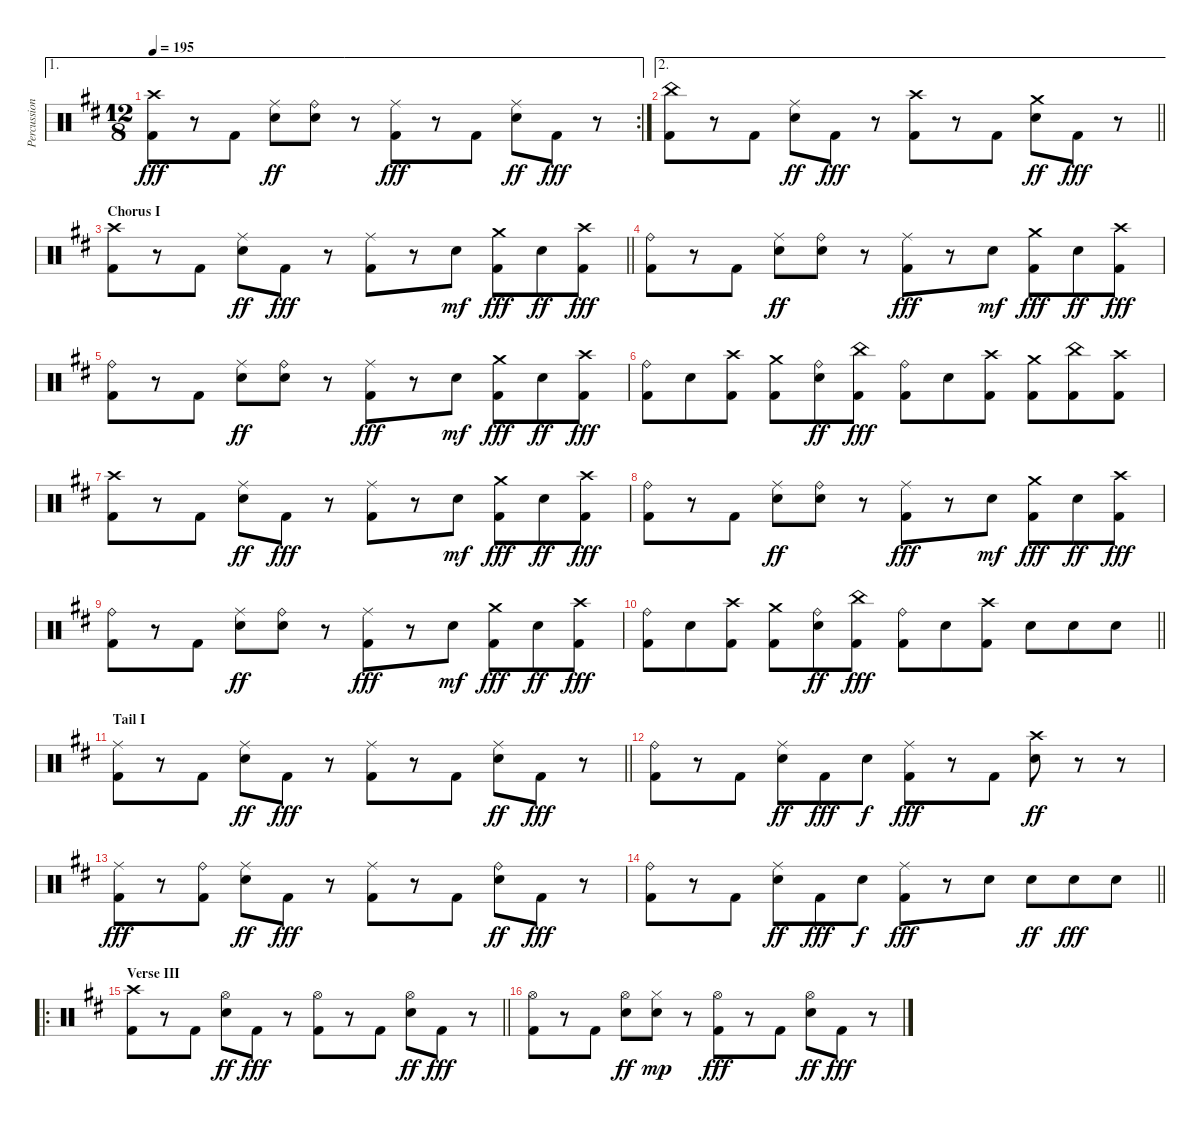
\track ("Percussion" "Percussion") {instrument percussion}
\staff {score}
\articulation defaults
\ae 1
\rc 2
\ts (12 8)
\tempo 195
\clef neutral
\ks d
("Crash high (hit)" "Kick (hit) 2").8{dy fff} r.8 "Kick (hit) 2".8 ("Ride (middle)" "Snare (hit) 2").8{dy ff} ("Ride (bell)" "Snare (hit) 2").8 r.8 ("Ride (middle)" "Kick (hit) 2").8{dy fff} r.8 "Kick (hit) 2".8 ("Ride (middle)" "Snare (hit) 2").8{dy ff} "Kick (hit) 2".8{dy fff} r.8 |
\ae 2
\barLineRight lightlight
("China (hit)" "Kick (hit) 2").8 r.8 "Kick (hit) 2".8 ("Ride (middle)" "Snare (hit) 2").8{dy ff} "Kick (hit) 2".8{dy fff} r.8 ("Crash high (hit)" "Kick (hit) 2").8 r.8 "Kick (hit) 2".8 ("Crash medium (hit)" "Snare (hit) 2").8{dy ff} "Kick (hit) 2".8{dy fff} r.8 |
\section ("" "Chorus I")
\barLineRight lightlight
("Crash high (hit)" "Kick (hit) 2").8 r.8 "Kick (hit) 2".8 ("Ride (middle)" "Snare (hit) 2").8{dy ff} "Kick (hit) 2".8{dy fff} r.8 ("Ride (middle)" "Kick (hit) 2").8 r.8 "Snare (hit) 2".8{dy mf} ("Crash medium (hit)" "Kick (hit) 2").8{dy fff} "Snare (hit) 2".8{dy ff} ("Crash high (hit)" "Kick (hit) 2").8{dy fff} |
("Ride (bell)" "Kick (hit) 2").8 r.8 "Kick (hit) 2".8 ("Ride (middle)" "Snare (hit) 2").8{dy ff} ("Ride (bell)" "Snare (hit) 2").8 r.8 ("Ride (middle)" "Kick (hit) 2").8{dy fff} r.8 "Snare (hit) 2".8{dy mf} ("Crash medium (hit)" "Kick (hit) 2").8{dy fff} "Snare (hit) 2".8{dy ff} ("Crash high (hit)" "Kick (hit) 2").8{dy fff} |
("Ride (bell)" "Kick (hit) 2").8 r.8 "Kick (hit) 2".8 ("Ride (middle)" "Snare (hit) 2").8{dy ff} ("Ride (bell)" "Snare (hit) 2").8 r.8 ("Ride (middle)" "Kick (hit) 2").8{dy fff} r.8 "Snare (hit) 2".8{dy mf} ("Crash medium (hit)" "Kick (hit) 2").8{dy fff} "Snare (hit) 2".8{dy ff} ("Crash high (hit)" "Kick (hit) 2").8{dy fff} |
("Ride (bell)" "Kick (hit) 2").8 "Snare (hit) 2".8 ("Crash high (hit)" "Kick (hit) 2").8 ("Crash medium (hit)" "Kick (hit) 2").8 ("Ride (bell)" "Snare (hit) 2").8{dy ff} ("China (hit)" "Kick (hit) 2").8{dy fff} ("Ride (bell)" "Kick (hit) 2").8 "Snare (hit) 2".8 ("Crash high (hit)" "Kick (hit) 2").8 ("Crash medium (hit)" "Kick (hit) 2").8 ("China (hit)" "Kick (hit) 2").8 ("Crash high (hit)" "Kick (hit) 2").8 |
("Crash high (hit)" "Kick (hit) 2").8 r.8 "Kick (hit) 2".8 ("Ride (middle)" "Snare (hit) 2").8{dy ff} "Kick (hit) 2".8{dy fff} r.8 ("Ride (middle)" "Kick (hit) 2").8 r.8 "Snare (hit) 2".8{dy mf} ("Crash medium (hit)" "Kick (hit) 2").8{dy fff} "Snare (hit) 2".8{dy ff} ("Crash high (hit)" "Kick (hit) 2").8{dy fff} |
("Ride (bell)" "Kick (hit) 2").8 r.8 "Kick (hit) 2".8 ("Ride (middle)" "Snare (hit) 2").8{dy ff} ("Ride (bell)" "Snare (hit) 2").8 r.8 ("Ride (middle)" "Kick (hit) 2").8{dy fff} r.8 "Snare (hit) 2".8{dy mf} ("Crash medium (hit)" "Kick (hit) 2").8{dy fff} "Snare (hit) 2".8{dy ff} ("Crash high (hit)" "Kick (hit) 2").8{dy fff} |
("Ride (bell)" "Kick (hit) 2").8 r.8 "Kick (hit) 2".8 ("Ride (middle)" "Snare (hit) 2").8{dy ff} ("Ride (bell)" "Snare (hit) 2").8 r.8 ("Ride (middle)" "Kick (hit) 2").8{dy fff} r.8 "Snare (hit) 2".8{dy mf} ("Crash medium (hit)" "Kick (hit) 2").8{dy fff} "Snare (hit) 2".8{dy ff} ("Crash high (hit)" "Kick (hit) 2").8{dy fff} |
\barLineRight lightlight
("Ride (bell)" "Kick (hit) 2").8 "Snare (hit) 2".8 ("Crash high (hit)" "Kick (hit) 2").8 ("Crash medium (hit)" "Kick (hit) 2").8 ("Ride (bell)" "Snare (hit) 2").8{dy ff} ("China (hit)" "Kick (hit) 2").8{dy fff} ("Ride (bell)" "Kick (hit) 2").8 "Snare (hit) 2".8 ("Crash high (hit)" "Kick (hit) 2").8 "Snare (hit) 2".8 "Snare (hit) 2".8 "Snare (hit) 2".8 |
\section ("" "Tail I")
\barLineRight lightlight
("Ride (middle)" "Kick (hit) 2").8 r.8 "Kick (hit) 2".8 ("Ride (middle)" "Snare (hit) 2").8{dy ff} "Kick (hit) 2".8{dy fff} r.8 ("Ride (middle)" "Kick (hit) 2").8 r.8 "Kick (hit) 2".8 ("Ride (middle)" "Snare (hit) 2").8{dy ff} "Kick (hit) 2".8{dy fff} r.8 |
("Ride (bell)" "Kick (hit) 2").8 r.8 "Kick (hit) 2".8 ("Ride (middle)" "Snare (hit) 2").8{dy ff} "Kick (hit) 2".8{dy fff} "Snare (hit) 2".8{dy f} ("Ride (middle)" "Kick (hit) 2").8{dy fff} r.8 "Kick (hit) 2".8 ("Crash high (hit)" "Snare (hit) 2").8{dy ff} r.8 r.8 |
("Ride (middle)" "Kick (hit) 2").8{dy fff} r.8 ("Ride (bell)" "Kick (hit) 2").8 ("Ride (middle)" "Snare (hit) 2").8{dy ff} "Kick (hit) 2".8{dy fff} r.8 ("Ride (middle)" "Kick (hit) 2").8 r.8 "Kick (hit) 2".8 ("Ride (bell)" "Snare (hit) 2").8{dy ff} "Kick (hit) 2".8{dy fff} r.8 |
\barLineRight lightlight
("Ride (bell)" "Kick (hit) 2").8 r.8 "Kick (hit) 2".8 ("Ride (middle)" "Snare (hit) 2").8{dy ff} "Kick (hit) 2".8{dy fff} "Snare (hit) 2".8{dy f} ("Ride (middle)" "Kick (hit) 2").8{dy fff} r.8 "Snare (hit) 2".8 "Snare (hit) 2".8{dy ff} "Snare (hit) 2".8{dy fff} "Snare (hit) 2".8 |
\ro
\section ("" "Verse III")
\barLineRight lightlight
("Crash high (hit)" "Kick (hit) 2").8 r.8 "Kick (hit) 2".8 ("Hi-Hat (open)" "Snare (hit) 2").8{dy ff} "Kick (hit) 2".8{dy fff} r.8 ("Hi-Hat (open)" "Kick (hit) 2").8 r.8 "Kick (hit) 2".8 ("Hi-Hat (open)" "Snare (hit) 2").8{dy ff} "Kick (hit) 2".8{dy fff} r.8 |
("Hi-Hat (open)" "Kick (hit) 2").8 r.8 "Kick (hit) 2".8 ("Hi-Hat (open)" "Snare (hit) 2").8{dy ff} ("Hi-Hat (closed)" "Snare (hit) 2").8{dy mp} r.8 ("Hi-Hat (open)" "Kick (hit) 2").8{dy fff} r.8 "Kick (hit) 2".8 ("Hi-Hat (open)" "Snare (hit) 2").8{dy ff} "Kick (hit) 2".8{dy fff} r.8
